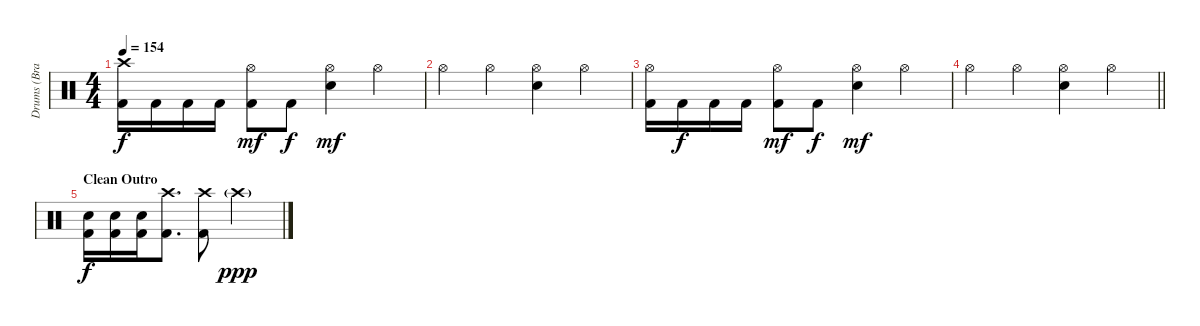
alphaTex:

\track ("Drums (Brandon Saller)" "Drums (Bra") {instrument percussion}
\staff {score}
\articulation defaults
\ts (4 4)
\tempo 154
\clef neutral
\ks c
("Crash high (hit)" "Kick (hit) 2").16{dy f} "Kick (hit) 2".16 "Kick (hit) 2".16 "Kick (hit) 2".16 ("Hi-Hat (open)" "Kick (hit) 2").8{dy mf} "Kick (hit) 2".8{dy f} ("Hi-Hat (open)" "Electric Snare (hit)").4{dy mf} "Hi-Hat (open)".4 |
"Hi-Hat (open)".4 "Hi-Hat (open)".4 ("Hi-Hat (open)" "Electric Snare (hit)").4 "Hi-Hat (open)".4 |
("Hi-Hat (open)" "Kick (hit) 2").16 "Kick (hit) 2".16{dy f} "Kick (hit) 2".16 "Kick (hit) 2".16 ("Hi-Hat (open)" "Kick (hit) 2").8{dy mf} "Kick (hit) 2".8{dy f} ("Hi-Hat (open)" "Electric Snare (hit)").4{dy mf} "Hi-Hat (open)".4 |
\barLineRight lightlight "Hi-Hat (open)".4 "Hi-Hat (open)".4
("Hi-Hat (open)" "Electric Snare (hit)").4 "Hi-Hat (open)".4 |
\section ("" "Clean Outro")
("Electric Snare (hit)" "Kick (hit) 2").16{dy f} ("Electric Snare (hit)" "Kick (hit) 2").16 ("Electric Snare (hit)" "Kick (hit) 2").16 ("Crash high (hit)" "Kick (hit) 2").8{d} ("Crash high (hit)" "Kick (hit) 2").8 "Crash high (hit)"{g}.2{dy ppp}
